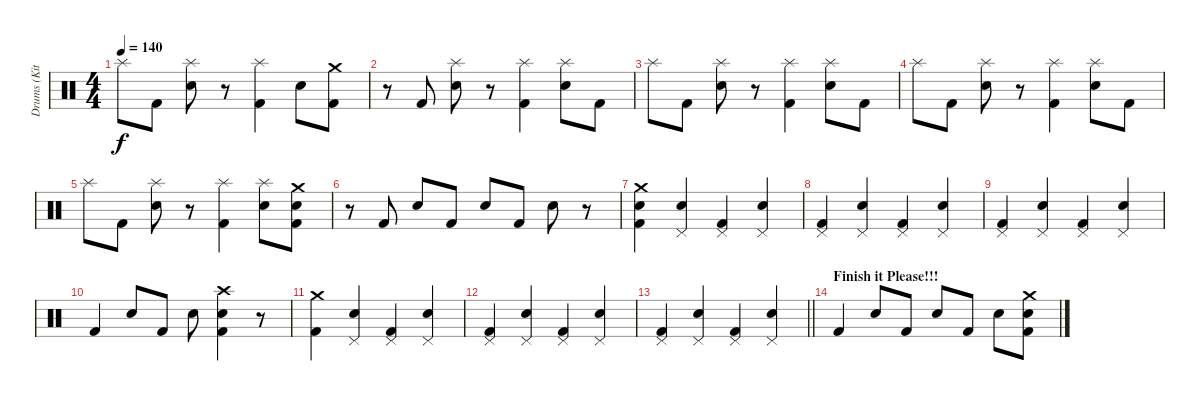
\track ("Drums (Kita)" "Drums (Kit") {instrument percussion}
\staff {score}
\articulation defaults
\ts (4 4)
\tempo 140
\clef neutral
\ks c "Splash (hit)".8{dy f} "Kick (hit) 2".8
("Splash (hit)" "Snare (hit) 2").8 r.8 ("Splash (hit)" "Kick (hit) 2").4 "Snare (hit) 2".8 ("Crash medium (hit)" "Kick (hit) 2").8 |
r.8 "Kick (hit) 2".8 ("Splash (hit)" "Snare (hit) 2").8 r.8 ("Splash (hit)" "Kick (hit) 2").4 ("Splash (hit)" "Snare (hit) 2").8 "Kick (hit) 2".8 |
"Splash (hit)".8 "Kick (hit) 2".8 ("Splash (hit)" "Snare (hit) 2").8 r.8 ("Splash (hit)" "Kick (hit) 2").4 ("Splash (hit)" "Snare (hit) 2").8 "Kick (hit) 2".8 |
"Splash (hit)".8 "Kick (hit) 2".8 ("Splash (hit)" "Snare (hit) 2").8 r.8 ("Splash (hit)" "Kick (hit) 2").4 ("Splash (hit)" "Snare (hit) 2").8 "Kick (hit) 2".8 |
"Splash (hit)".8 "Kick (hit) 2".8 ("Splash (hit)" "Snare (hit) 2").8 r.8 ("Splash (hit)" "Kick (hit) 2").4 ("Splash (hit)" "Snare (hit) 2").8 ("Crash medium (hit)" "Snare (hit) 2" "Kick (hit) 2").8 |
r.8 "Kick (hit) 2".8 "Snare (hit) 2".8 "Kick (hit) 2".8 "Snare (hit) 2".8 "Kick (hit) 2".8 "Snare (hit) 2".8 r.8 |
("Crash medium (hit)" "Snare (hit) 2" "Kick (hit) 2").4 ("Pedal Hi-Hat (hit)" "Snare (hit) 2").4 ("Pedal Hi-Hat (hit)" "Kick (hit) 2").4 ("Pedal Hi-Hat (hit)" "Snare (hit) 2").4 |
("Pedal Hi-Hat (hit)" "Kick (hit) 2").4 ("Pedal Hi-Hat (hit)" "Snare (hit) 2").4 ("Pedal Hi-Hat (hit)" "Kick (hit) 2").4 ("Pedal Hi-Hat (hit)" "Snare (hit) 2").4 |
("Pedal Hi-Hat (hit)" "Kick (hit) 2").4 ("Pedal Hi-Hat (hit)" "Snare (hit) 2").4 ("Pedal Hi-Hat (hit)" "Kick (hit) 2").4 ("Pedal Hi-Hat (hit)" "Snare (hit) 2").4 |
"Kick (hit) 2".4 "Snare (hit) 2".8 "Kick (hit) 2".8 "Snare (hit) 2".8 ("Crash high (hit)" "Snare (hit) 2" "Kick (hit) 2").4 r.8 |
("Crash medium (hit)" "Kick (hit) 2").4 ("Pedal Hi-Hat (hit)" "Snare (hit) 2").4 ("Pedal Hi-Hat (hit)" "Kick (hit) 2").4 ("Pedal Hi-Hat (hit)" "Snare (hit) 2").4 |
("Pedal Hi-Hat (hit)" "Kick (hit) 2").4 ("Pedal Hi-Hat (hit)" "Snare (hit) 2").4 ("Pedal Hi-Hat (hit)" "Kick (hit) 2").4 ("Pedal Hi-Hat (hit)" "Snare (hit) 2").4 |
\barLineRight lightlight
("Pedal Hi-Hat (hit)" "Kick (hit) 2").4 ("Pedal Hi-Hat (hit)" "Snare (hit) 2").4 ("Pedal Hi-Hat (hit)" "Kick (hit) 2").4 ("Pedal Hi-Hat (hit)" "Snare (hit) 2").4 |
\section ("" "Finish it Please!!!")
"Kick (hit) 2".4 "Snare (hit) 2".8 "Kick (hit) 2".8 "Snare (hit) 2".8 "Kick (hit) 2".8 "Snare (hit) 2".8 ("Crash medium (hit)" "Snare (hit) 2" "Kick (hit) 2").8
